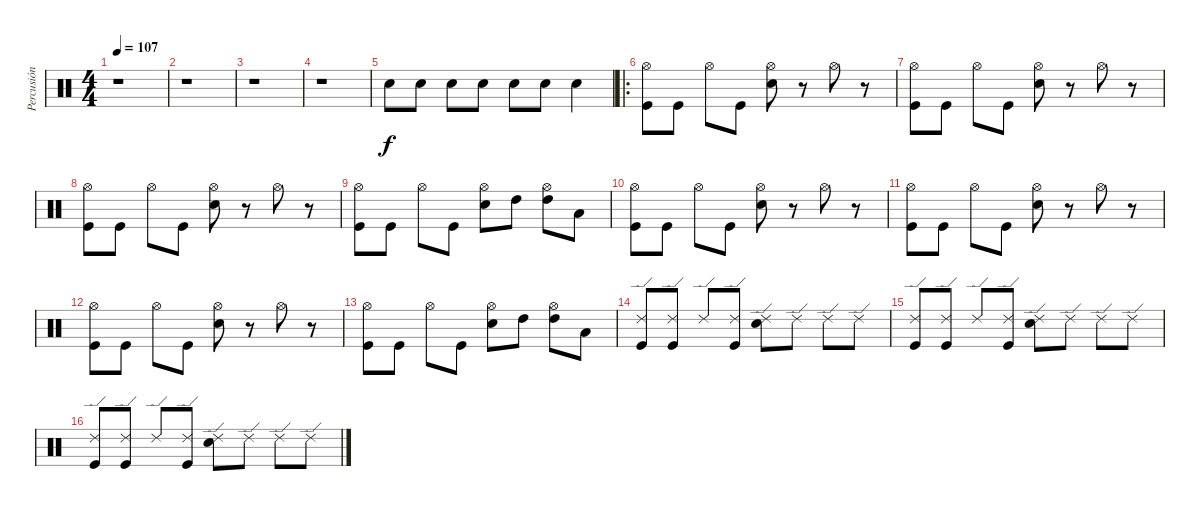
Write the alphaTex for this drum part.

\track ("Percusión" "Percusión") {instrument percussion}
\staff {score}
\articulation defaults
\ts (4 4)
\tempo 107
\clef neutral
\ks c
r.1{dy f} |
r.1 |
r.1 |
r.1{volume 0} |
"Snare (hit) 2".8{volume 13} "Snare (hit) 2".8 "Snare (hit) 2".8 "Snare (hit) 2".8 "Snare (hit) 2".8 "Snare (hit) 2".8 "Snare (hit) 2".4 |
\ro
("Hi-Hat (open)" "Kick (hit)").8 "Kick (hit)".8 "Hi-Hat (open)".8 "Kick (hit)".8 ("Hi-Hat (open)" "Snare (hit) 2").8 r.8 "Hi-Hat (open)".8 r.8 |
("Hi-Hat (open)" "Kick (hit)").8 "Kick (hit)".8 "Hi-Hat (open)".8 "Kick (hit)".8 ("Hi-Hat (open)" "Snare (hit) 2").8 r.8 "Hi-Hat (open)".8 r.8 |
("Hi-Hat (open)" "Kick (hit)").8 "Kick (hit)".8 "Hi-Hat (open)".8 "Kick (hit)".8 ("Hi-Hat (open)" "Snare (hit) 2").8 r.8 "Hi-Hat (open)".8 r.8 |
("Hi-Hat (open)" "Kick (hit)").8 "Kick (hit)".8 "Hi-Hat (open)".8 "Kick (hit)".8 ("Hi-Hat (open)" "Snare (hit) 2").8 "High Tom (hit)".8 ("Hi-Hat (open)" "High Tom (hit)").8 "Low Tom (hit)".8 |
("Hi-Hat (open)" "Kick (hit)").8 "Kick (hit)".8 "Hi-Hat (open)".8 "Kick (hit)".8 ("Hi-Hat (open)" "Snare (hit) 2").8 r.8 "Hi-Hat (open)".8 r.8 |
("Hi-Hat (open)" "Kick (hit)").8 "Kick (hit)".8 "Hi-Hat (open)".8 "Kick (hit)".8 ("Hi-Hat (open)" "Snare (hit) 2").8 r.8 "Hi-Hat (open)".8 r.8 |
("Hi-Hat (open)" "Kick (hit)").8 "Kick (hit)".8 "Hi-Hat (open)".8 "Kick (hit)".8 ("Hi-Hat (open)" "Snare (hit) 2").8 r.8 "Hi-Hat (open)".8 r.8 |
("Hi-Hat (open)" "Kick (hit)").8 "Kick (hit)".8 "Hi-Hat (open)".8 "Kick (hit)".8 ("Hi-Hat (open)" "Snare (hit) 2").8 "High Tom (hit)".8 ("Hi-Hat (open)" "High Tom (hit)").8 "Low Tom (hit)".8 |
("Ride (edge) 2" "Kick (hit)").8 ("Ride (edge) 2" "Kick (hit)").8 "Ride (edge) 2".8 ("Ride (edge) 2" "Kick (hit)").8 ("Ride (edge) 2" "Snare (hit) 2").8 "Ride (edge) 2".8 "Ride (edge) 2".8 "Ride (edge) 2".8 |
("Ride (edge) 2" "Kick (hit)").8 ("Ride (edge) 2" "Kick (hit)").8 "Ride (edge) 2".8 ("Ride (edge) 2" "Kick (hit)").8 ("Ride (edge) 2" "Snare (hit) 2").8 "Ride (edge) 2".8 "Ride (edge) 2".8 "Ride (edge) 2".8 |
("Ride (edge) 2" "Kick (hit)").8 ("Ride (edge) 2" "Kick (hit)").8 "Ride (edge) 2".8 ("Ride (edge) 2" "Kick (hit)").8 ("Ride (edge) 2" "Snare (hit) 2").8 "Ride (edge) 2".8 "Ride (edge) 2".8 "Ride (edge) 2".8
